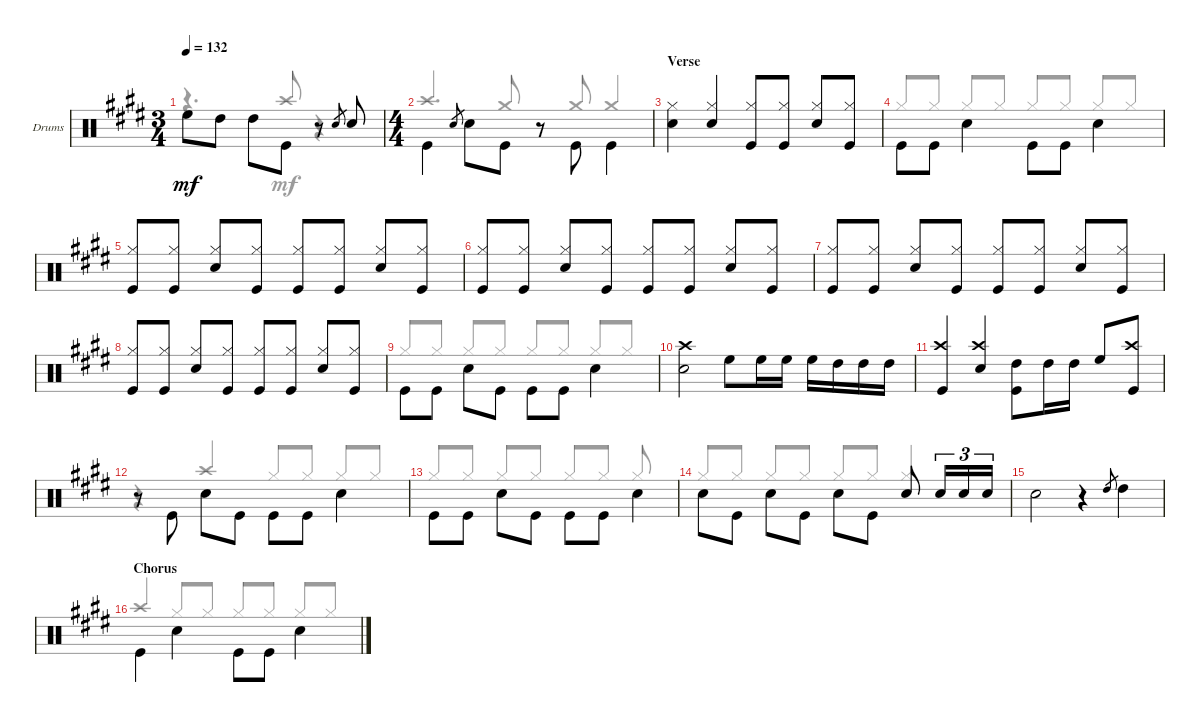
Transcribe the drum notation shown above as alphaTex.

\defaultSystemsLayout 4
\bracketExtendMode groupsimilarinstruments
\firstSystemTrackNameOrientation horizontal
\otherSystemsTrackNameOrientation horizontal
\track ("PETER CRISS" "Drums") {solo instrument percussion}
\staff {score}
\articulation defaults
\voice
\ts (3 4)
\tempo 132
\clef neutral
\ks e "High Floor Tom (hit)".8{dy mf} "High Tom (hit)".8 "High Tom (hit)".8{beam invert} "Kick (hit)".8
r.8 "Snare (hit) 2".8{gr} "Snare (hit) 2".8 |
\ts (4 4)
"Kick (hit)".4{beam invert} "Snare (hit) 2".8{gr} "Snare (hit) 2".8{beam invert} "Kick (hit)".8 r.8 "Kick (hit)".8{beam invert} "Kick (hit)".4{beam invert} |
\section ("" "Verse")
("Snare (hit) 2" "Hi-Hat (closed)").4 ("Snare (hit) 2" "Hi-Hat (closed)").4 ("Hi-Hat (closed)" "Kick (hit)").8{beam invert} ("Hi-Hat (closed)" "Kick (hit)").8 ("Hi-Hat (closed)" "Snare (hit) 2").8{beam invert} ("Hi-Hat (closed)" "Kick (hit)").8 |
"Kick (hit)".8{beam invert} "Kick (hit)".8 "Snare (hit) 2".4{beam invert} "Kick (hit)".8{beam invert} "Kick (hit)".8 "Snare (hit) 2".4{beam invert} |
("Kick (hit)" "Hi-Hat (closed)").8{beam invert} ("Kick (hit)" "Hi-Hat (closed)").8 ("Snare (hit) 2" "Hi-Hat (closed)").8{beam invert} ("Kick (hit)" "Hi-Hat (closed)").8 ("Kick (hit)" "Hi-Hat (closed)").8{beam invert} ("Kick (hit)" "Hi-Hat (closed)").8 ("Snare (hit) 2" "Hi-Hat (closed)").8{beam invert} ("Kick (hit)" "Hi-Hat (closed)").8 |
("Kick (hit)" "Hi-Hat (closed)").8{beam invert} ("Kick (hit)" "Hi-Hat (closed)").8 ("Snare (hit) 2" "Hi-Hat (closed)").8{beam invert} ("Kick (hit)" "Hi-Hat (closed)").8 ("Kick (hit)" "Hi-Hat (closed)").8{beam invert} ("Kick (hit)" "Hi-Hat (closed)").8 ("Snare (hit) 2" "Hi-Hat (closed)").8{beam invert} ("Kick (hit)" "Hi-Hat (closed)").8 |
("Kick (hit)" "Hi-Hat (closed)").8{beam invert} ("Kick (hit)" "Hi-Hat (closed)").8 ("Snare (hit) 2" "Hi-Hat (closed)").8{beam invert} ("Kick (hit)" "Hi-Hat (closed)").8 ("Kick (hit)" "Hi-Hat (closed)").8{beam invert} ("Kick (hit)" "Hi-Hat (closed)").8 ("Snare (hit) 2" "Hi-Hat (closed)").8{beam invert} ("Kick (hit)" "Hi-Hat (closed)").8 |
("Kick (hit)" "Hi-Hat (closed)").8{beam invert} ("Kick (hit)" "Hi-Hat (closed)").8 ("Snare (hit) 2" "Hi-Hat (closed)").8{beam invert} ("Kick (hit)" "Hi-Hat (closed)").8 ("Kick (hit)" "Hi-Hat (closed)").8{beam invert} ("Kick (hit)" "Hi-Hat (closed)").8 ("Snare (hit) 2" "Hi-Hat (closed)").8{beam invert} ("Kick (hit)" "Hi-Hat (closed)").8 |
"Kick (hit)".8{beam invert} "Kick (hit)".8 "Snare (hit) 2".8{beam invert} "Kick (hit)".8 "Kick (hit)".8{beam invert} "Kick (hit)".8 "Snare (hit) 2".4{beam invert} |
("Snare (hit) 2" "Crash high (hit)").2 "High Floor Tom (hit)".8 "High Floor Tom (hit)".16 "High Floor Tom (hit)".16 "High Floor Tom (hit)".16 "High Tom (hit)".16 "High Tom (hit)".16 "High Tom (hit)".16 |
("Kick (hit)" "Crash high (hit)").4{beam invert} ("Snare (hit) 2" "Crash high (hit)").4 ("Kick (hit)" "High Tom (hit)").8{beam invert} "High Tom (hit)".16 "High Tom (hit)".16 "High Floor Tom (hit)".8{beam invert} ("Kick (hit)" "Crash high (hit)").8 |
r.8 "Kick (hit)".8{beam invert} "Snare (hit) 2".8{beam invert} "Kick (hit)".8 "Kick (hit)".8{beam invert} "Kick (hit)".8 "Snare (hit) 2".4{beam invert} |
"Kick (hit)".8{beam invert} "Kick (hit)".8 "Snare (hit) 2".8{beam invert} "Kick (hit)".8 "Kick (hit)".8{beam invert} "Kick (hit)".8 "Snare (hit) 2".4{beam invert} |
"Snare (hit) 2".8{beam invert} "Kick (hit)".8 "Snare (hit) 2".8{beam invert} "Kick (hit)".8 "Snare (hit) 2".8{beam invert} "Kick (hit)".8 "Snare (hit) 2".8 "Snare (hit) 2".16{tu (3 2)} "Snare (hit) 2".16{tu (3 2)} "Snare (hit) 2".16{tu (3 2)} |
"Snare (hit) 2".2 r.4 "High Tom (hit)".8{gr} "High Tom (hit)".4 |
\section ("" "Chorus")
"Kick (hit)".4{beam invert} "Snare (hit) 2".4{beam invert} "Kick (hit)".8{beam invert} "Kick (hit)".8 "Snare (hit) 2".4{beam invert}
\voice
\clef neutral
\ottava regular
\simile none
\ks e
r.4{d dy mf beam invert} "Crash high (hit)".8{beam invert} r.4{beam invert} |
"Crash high (hit)".4{d beam invert} "Crash medium (hit)".8{beam invert} r.8 "Crash medium (hit)".8{beam invert} "Crash medium (hit)".4{beam invert} |
|
"Hi-Hat (closed)".8{beam invert} "Hi-Hat (closed)".8 "Hi-Hat (closed)".8{beam invert} "Hi-Hat (closed)".8 "Hi-Hat (closed)".8{beam invert} "Hi-Hat (closed)".8 "Hi-Hat (closed)".8{beam invert} "Hi-Hat (closed)".8 |
|
|
|
|
"Hi-Hat (closed)".8{beam invert} "Hi-Hat (closed)".8 "Hi-Hat (closed)".8{beam invert} "Hi-Hat (closed)".8 "Hi-Hat (closed)".8{beam invert} "Hi-Hat (closed)".8 "Hi-Hat (closed)".8{beam invert} "Hi-Hat (closed)".8 |
|
|
r.4 "Crash high (hit)".4{beam invert} "Hi-Hat (closed)".8{beam invert} "Hi-Hat (closed)".8 "Hi-Hat (closed)".8{beam invert} "Hi-Hat (closed)".8 |
"Hi-Hat (closed)".8{beam invert} "Hi-Hat (closed)".8 "Hi-Hat (closed)".8{beam invert} "Hi-Hat (closed)".8 "Hi-Hat (closed)".8{beam invert} "Hi-Hat (closed)".8 "Hi-Hat (closed)".8{beam invert} |
"Hi-Hat (closed)".8{beam invert} "Hi-Hat (closed)".8 "Hi-Hat (closed)".8{beam invert} "Hi-Hat (closed)".8 "Hi-Hat (closed)".8{beam invert} "Hi-Hat (closed)".8 "Hi-Hat (closed)".4{beam invert} |
|
"Crash high (hit)".4{beam invert} "Hi-Hat (closed)".8{beam invert} "Hi-Hat (closed)".8 "Hi-Hat (closed)".8{beam invert} "Hi-Hat (closed)".8 "Hi-Hat (closed)".8{beam invert} "Hi-Hat (closed)".8
